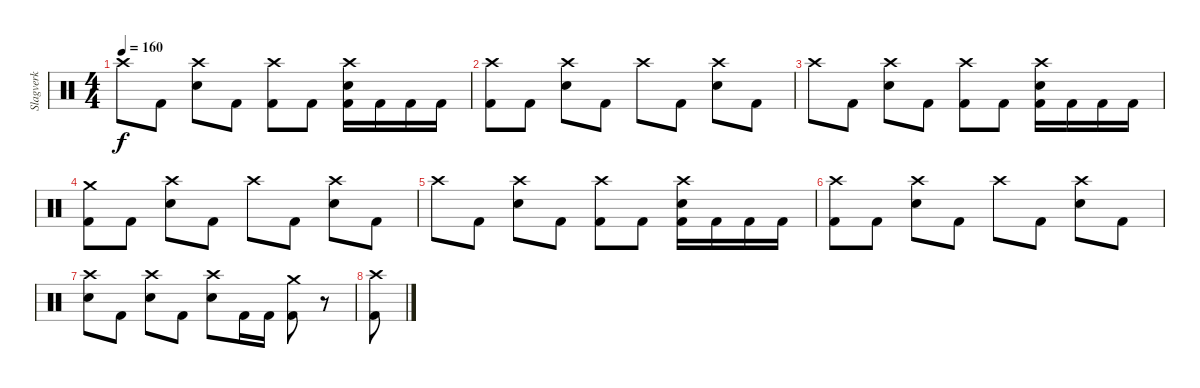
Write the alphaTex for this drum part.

\track ("Slagverk" "Slagverk") {instrument percussion}
\staff {score}
\articulation defaults
\ts (4 4)
\tempo 160
\clef neutral
\ks c "Crash high (hit)".8{dy f} "Kick (hit) 2".8
("Crash high (hit)" "Snare (hit) 2").8 "Kick (hit) 2".8 ("Crash high (hit)" "Kick (hit) 2").8 "Kick (hit) 2".8 ("Crash high (hit)" "Snare (hit) 2" "Kick (hit) 2").16 "Kick (hit) 2".16 "Kick (hit) 2".16 "Kick (hit) 2".16 |
("Crash high (hit)" "Kick (hit) 2").8 "Kick (hit) 2".8 ("Crash high (hit)" "Snare (hit) 2").8 "Kick (hit) 2".8 "Crash high (hit)".8 "Kick (hit) 2".8 ("Crash high (hit)" "Snare (hit) 2").8 "Kick (hit) 2".8 |
"Crash high (hit)".8 "Kick (hit) 2".8 ("Crash high (hit)" "Snare (hit) 2").8 "Kick (hit) 2".8 ("Crash high (hit)" "Kick (hit) 2").8 "Kick (hit) 2".8 ("Crash high (hit)" "Snare (hit) 2" "Kick (hit) 2").16 "Kick (hit) 2".16 "Kick (hit) 2".16 "Kick (hit) 2".16 |
("Crash medium (hit)" "Kick (hit) 2").8 "Kick (hit) 2".8 ("Crash high (hit)" "Snare (hit) 2").8 "Kick (hit) 2".8 "Crash high (hit)".8 "Kick (hit) 2".8 ("Crash high (hit)" "Snare (hit) 2").8 "Kick (hit) 2".8 |
"Crash high (hit)".8 "Kick (hit) 2".8 ("Crash high (hit)" "Snare (hit) 2").8 "Kick (hit) 2".8 ("Crash high (hit)" "Kick (hit) 2").8 "Kick (hit) 2".8 ("Crash high (hit)" "Snare (hit) 2" "Kick (hit) 2").16 "Kick (hit) 2".16 "Kick (hit) 2".16 "Kick (hit) 2".16 |
("Crash high (hit)" "Kick (hit) 2").8 "Kick (hit) 2".8 ("Crash high (hit)" "Snare (hit) 2").8 "Kick (hit) 2".8 "Crash high (hit)".8 "Kick (hit) 2".8 ("Crash high (hit)" "Snare (hit) 2").8 "Kick (hit) 2".8 |
("Crash high (hit)" "Snare (hit) 2").8 "Kick (hit) 2".8 ("Crash high (hit)" "Snare (hit) 2").8 "Kick (hit) 2".8 ("Crash high (hit)" "Snare (hit) 2").8 "Kick (hit) 2".16 "Kick (hit) 2".16 ("Crash medium (hit)" "Kick (hit) 2").8 r.8 |
("Crash high (hit)" "Kick (hit) 2").8
